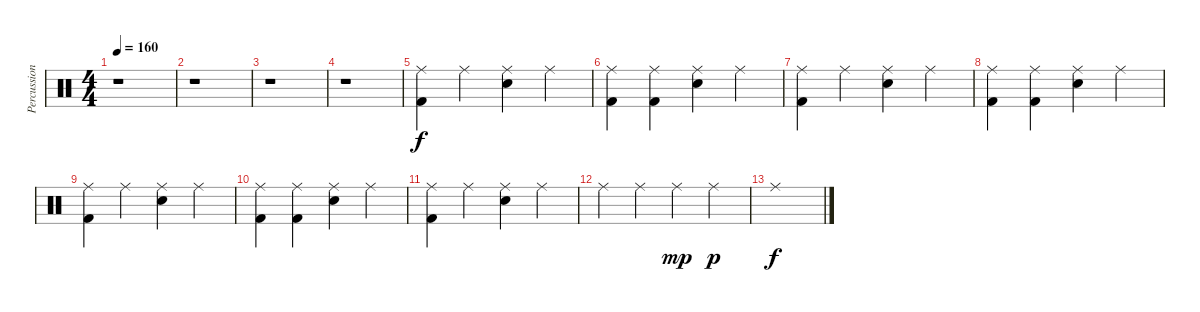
\track ("Percussion" "Percussion") {instrument percussion}
\staff {score}
\articulation defaults
\ts (4 4)
\tempo 160
\clef neutral
\ks c
r.1{dy f} |
r.1 |
r.1 |
r.1 |
("Ride (middle)" "Kick (hit) 2").4 "Ride (middle)".4 ("Ride (middle)" "Electric Snare (hit)").4 "Ride (middle)".4 |
("Ride (middle)" "Kick (hit) 2").4 ("Ride (middle)" "Kick (hit) 2").4 ("Ride (middle)" "Electric Snare (hit)").4 "Ride (middle)".4 |
("Ride (middle)" "Kick (hit) 2").4 "Ride (middle)".4 ("Ride (middle)" "Electric Snare (hit)").4 "Ride (middle)".4 |
("Ride (middle)" "Kick (hit) 2").4 ("Ride (middle)" "Kick (hit) 2").4 ("Ride (middle)" "Electric Snare (hit)").4 "Ride (middle)".4 |
("Ride (middle)" "Kick (hit) 2").4 "Ride (middle)".4 ("Ride (middle)" "Electric Snare (hit)").4 "Ride (middle)".4 |
("Ride (middle)" "Kick (hit) 2").4 ("Ride (middle)" "Kick (hit) 2").4 ("Ride (middle)" "Electric Snare (hit)").4 "Ride (middle)".4 |
("Ride (middle)" "Kick (hit) 2").4 "Ride (middle)".4 ("Ride (middle)" "Electric Snare (hit)").4 "Ride (middle)".4 |
"Ride (middle)".4 "Ride (middle)".4 "Ride (middle)".4{dy mp} "Ride (middle)".4{dy p} |
"Ride (middle)".1{dy f}
